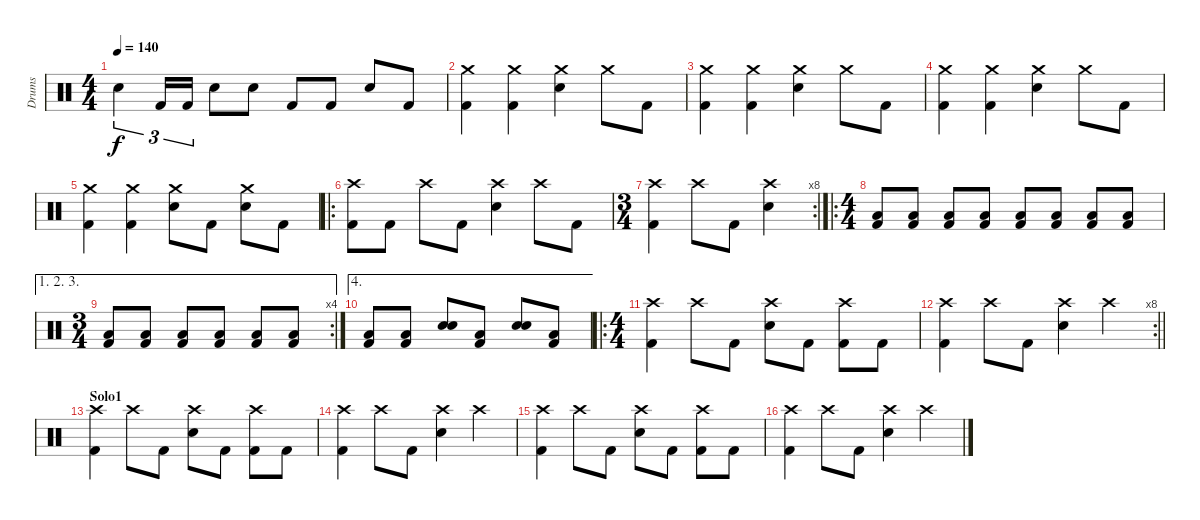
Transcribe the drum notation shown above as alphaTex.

\track ("Drums" "Drums") {instrument percussion}
\staff {score}
\articulation defaults
\ts (4 4)
\tempo 140
\clef neutral
\ks c "Snare (hit) 2".4{tu (3 2) dy f} "Kick (hit) 2".16{tu (3 2)} "Kick (hit) 2".16{tu (3 2)} "Snare (hit) 2".8 "Snare (hit) 2".8 "Kick (hit) 2".8 "Kick (hit) 2".8 "Snare (hit) 2".8 "Kick (hit) 2".8
|
("Crash medium (hit)" "Kick (hit) 2").4 ("Crash medium (hit)" "Kick (hit) 2").4 ("Crash medium (hit)" "Snare (hit) 2").4 "Crash medium (hit)".8 "Kick (hit) 2".8 |
("Crash medium (hit)" "Kick (hit) 2").4 ("Crash medium (hit)" "Kick (hit) 2").4 ("Crash medium (hit)" "Snare (hit) 2").4 "Crash medium (hit)".8 "Kick (hit) 2".8 |
("Crash medium (hit)" "Kick (hit) 2").4 ("Crash medium (hit)" "Kick (hit) 2").4 ("Crash medium (hit)" "Snare (hit) 2").4 "Crash medium (hit)".8 "Kick (hit) 2".8 |
("Crash medium (hit)" "Kick (hit) 2").4 ("Crash medium (hit)" "Kick (hit) 2").4 ("Crash medium (hit)" "Snare (hit) 2").8 "Kick (hit) 2".8 ("Crash medium (hit)" "Snare (hit) 2").8 "Kick (hit) 2".8 |
\ro
("Crash high (hit)" "Kick (hit) 2").8 "Kick (hit) 2".8 "Crash high (hit)".8 "Kick (hit) 2".8 ("Crash high (hit)" "Snare (hit) 2").4 "Crash high (hit)".8 "Kick (hit) 2".8 |
\rc 8
\ts (3 4)
("Crash high (hit)" "Kick (hit) 2").4 "Crash high (hit)".8 "Kick (hit) 2".8 ("Crash high (hit)" "Snare (hit) 2").4 |
\ro
\ts (4 4)
("Low Floor Tom (hit)" "Kick (hit) 2").8 ("Low Floor Tom (hit)" "Kick (hit) 2").8 ("Low Floor Tom (hit)" "Kick (hit) 2").8 ("Low Floor Tom (hit)" "Kick (hit) 2").8 ("Low Floor Tom (hit)" "Kick (hit) 2").8 ("Low Floor Tom (hit)" "Kick (hit) 2").8 ("Low Floor Tom (hit)" "Kick (hit) 2").8 ("Low Floor Tom (hit)" "Kick (hit) 2").8 |
\ae (1 2 3)
\rc 4
\ts (3 4)
("Low Floor Tom (hit)" "Kick (hit) 2").8 ("Low Floor Tom (hit)" "Kick (hit) 2").8 ("Low Floor Tom (hit)" "Kick (hit) 2").8 ("Low Floor Tom (hit)" "Kick (hit) 2").8 ("Low Floor Tom (hit)" "Kick (hit) 2").8 ("Low Floor Tom (hit)" "Kick (hit) 2").8 |
\ae 4
("Low Floor Tom (hit)" "Kick (hit) 2").8 ("Low Floor Tom (hit)" "Kick (hit) 2").8 ("Snare (hit) 2" "Snare (hit) 2").8 ("Low Floor Tom (hit)" "Kick (hit) 2").8 ("Snare (hit) 2" "Snare (hit) 2").8 ("Low Floor Tom (hit)" "Kick (hit) 2").8 |
\ro
\ts (4 4)
("Kick (hit) 2" "Crash high (hit)").4 "Crash high (hit)".8 "Kick (hit) 2".8 ("Snare (hit) 2" "Crash high (hit)").8 "Kick (hit) 2".8 ("Kick (hit) 2" "Crash high (hit)").8 "Kick (hit) 2".8 |
\rc 8
\barLineRight lightlight
("Kick (hit) 2" "Crash high (hit)").4 "Crash high (hit)".8 "Kick (hit) 2".8 ("Snare (hit) 2" "Crash high (hit)").4 "Crash high (hit)".4 |
\section ("" "Solo1")
("Kick (hit) 2" "Crash high (hit)").4 "Crash high (hit)".8 "Kick (hit) 2".8 ("Snare (hit) 2" "Crash high (hit)").8 "Kick (hit) 2".8 ("Kick (hit) 2" "Crash high (hit)").8 "Kick (hit) 2".8 |
("Kick (hit) 2" "Crash high (hit)").4 "Crash high (hit)".8 "Kick (hit) 2".8 ("Snare (hit) 2" "Crash high (hit)").4 "Crash high (hit)".4 |
("Kick (hit) 2" "Crash high (hit)").4 "Crash high (hit)".8 "Kick (hit) 2".8 ("Snare (hit) 2" "Crash high (hit)").8 "Kick (hit) 2".8 ("Kick (hit) 2" "Crash high (hit)").8 "Kick (hit) 2".8 |
("Kick (hit) 2" "Crash high (hit)").4 "Crash high (hit)".8 "Kick (hit) 2".8 ("Snare (hit) 2" "Crash high (hit)").4 "Crash high (hit)".4
